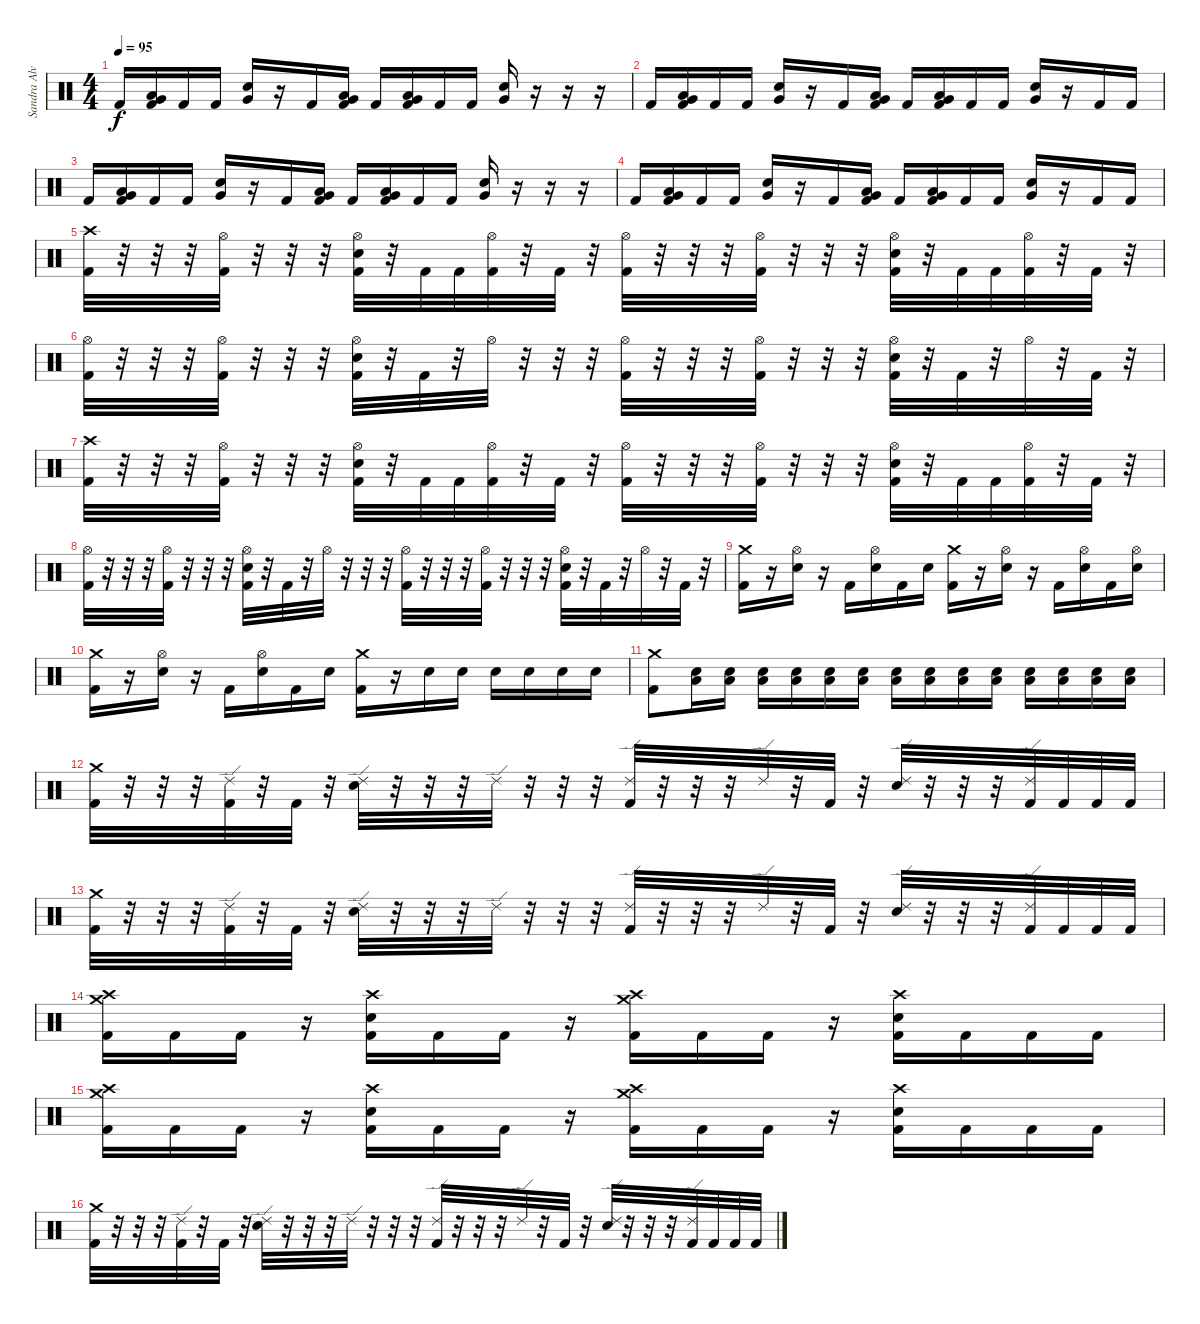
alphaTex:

\track ("Sandra Alvarenga" "Sandra Alv") {instrument percussion}
\staff
\articulation defaults
\ts (4 4)
\tempo 95
\clef neutral
\ks c "Kick (hit) 2".16{dy f}
("Low Tom (hit)" "Very Low Tom (hit)" "Kick (hit) 2").16 "Kick (hit) 2".16 "Kick (hit) 2".16 ("Electric Snare (hit)" "Very Low Tom (hit)").16 r.16 "Kick (hit) 2".16 ("Low Tom (hit)" "Very Low Tom (hit)" "Kick (hit) 2").16 "Kick (hit) 2".16 ("Very Low Tom (hit)" "Low Floor Tom (hit)" "Kick (hit) 2").16 "Kick (hit) 2".16 "Kick (hit) 2".16 ("Electric Snare (hit)" "Very Low Tom (hit)").16 r.16 r.16 r.16 |
"Kick (hit) 2".16 ("Low Tom (hit)" "Very Low Tom (hit)" "Kick (hit) 2").16 "Kick (hit) 2".16 "Kick (hit) 2".16 ("Electric Snare (hit)" "Very Low Tom (hit)").16 r.16 "Kick (hit) 2".16 ("Low Tom (hit)" "Very Low Tom (hit)" "Kick (hit) 2").16 "Kick (hit) 2".16 ("Very Low Tom (hit)" "Low Floor Tom (hit)" "Kick (hit) 2").16 "Kick (hit) 2".16 "Kick (hit) 2".16 ("Electric Snare (hit)" "Very Low Tom (hit)").16 r.16 "Kick (hit) 2".16 "Kick (hit) 2".16 |
"Kick (hit) 2".16 ("Low Tom (hit)" "Very Low Tom (hit)" "Kick (hit) 2").16 "Kick (hit) 2".16 "Kick (hit) 2".16 ("Electric Snare (hit)" "Very Low Tom (hit)").16 r.16 "Kick (hit) 2".16 ("Low Tom (hit)" "Very Low Tom (hit)" "Kick (hit) 2").16 "Kick (hit) 2".16 ("Very Low Tom (hit)" "Low Floor Tom (hit)" "Kick (hit) 2").16 "Kick (hit) 2".16 "Kick (hit) 2".16 ("Electric Snare (hit)" "Very Low Tom (hit)").16 r.16 r.16 r.16 |
"Kick (hit) 2".16 ("Low Tom (hit)" "Very Low Tom (hit)" "Kick (hit) 2").16 "Kick (hit) 2".16 "Kick (hit) 2".16 ("Electric Snare (hit)" "Very Low Tom (hit)").16 r.16 "Kick (hit) 2".16 ("Low Tom (hit)" "Very Low Tom (hit)" "Kick (hit) 2").16 "Kick (hit) 2".16 ("Very Low Tom (hit)" "Low Floor Tom (hit)" "Kick (hit) 2").16 "Kick (hit) 2".16 "Kick (hit) 2".16 ("Electric Snare (hit)" "Very Low Tom (hit)").16 r.16 "Kick (hit) 2".16 "Kick (hit) 2".16 |
("Crash high (hit)" "Kick (hit) 2").32 r.32 r.32 r.32 ("Hi-Hat (open)" "Kick (hit) 2").32 r.32 r.32 r.32 ("Hi-Hat (open)" "Electric Snare (hit)" "Kick (hit) 2").32 r.32 "Kick (hit) 2".32 "Kick (hit) 2".32 ("Hi-Hat (open)" "Kick (hit) 2").32 r.32 "Kick (hit) 2".32 r.32 ("Hi-Hat (open)" "Kick (hit) 2").32 r.32 r.32 r.32 ("Hi-Hat (open)" "Kick (hit) 2").32 r.32 r.32 r.32 ("Hi-Hat (open)" "Electric Snare (hit)" "Kick (hit) 2").32 r.32 "Kick (hit) 2".32 "Kick (hit) 2".32 ("Hi-Hat (open)" "Kick (hit) 2").32 r.32 "Kick (hit) 2".32 r.32 |
("Hi-Hat (open)" "Kick (hit) 2").32 r.32 r.32 r.32 ("Hi-Hat (open)" "Kick (hit) 2").32 r.32 r.32 r.32 ("Hi-Hat (open)" "Electric Snare (hit)" "Kick (hit) 2").32 r.32 "Kick (hit) 2".32 r.32 "Hi-Hat (open)".32 r.32 r.32 r.32 ("Hi-Hat (open)" "Kick (hit) 2").32 r.32 r.32 r.32 ("Hi-Hat (open)" "Kick (hit) 2").32 r.32 r.32 r.32 ("Hi-Hat (open)" "Electric Snare (hit)" "Kick (hit) 2").32 r.32 "Kick (hit) 2".32 r.32 "Hi-Hat (open)".32 r.32 "Kick (hit) 2".32 r.32 |
("Crash high (hit)" "Kick (hit) 2").32 r.32 r.32 r.32 ("Hi-Hat (open)" "Kick (hit) 2").32 r.32 r.32 r.32 ("Hi-Hat (open)" "Electric Snare (hit)" "Kick (hit) 2").32 r.32 "Kick (hit) 2".32 "Kick (hit) 2".32 ("Hi-Hat (open)" "Kick (hit) 2").32 r.32 "Kick (hit) 2".32 r.32 ("Hi-Hat (open)" "Kick (hit) 2").32 r.32 r.32 r.32 ("Hi-Hat (open)" "Kick (hit) 2").32 r.32 r.32 r.32 ("Hi-Hat (open)" "Electric Snare (hit)" "Kick (hit) 2").32 r.32 "Kick (hit) 2".32 "Kick (hit) 2".32 ("Hi-Hat (open)" "Kick (hit) 2").32 r.32 "Kick (hit) 2".32 r.32 |
("Hi-Hat (open)" "Kick (hit) 2").32 r.32 r.32 r.32 ("Hi-Hat (open)" "Kick (hit) 2").32 r.32 r.32 r.32 ("Hi-Hat (open)" "Electric Snare (hit)" "Kick (hit) 2").32 r.32 "Kick (hit) 2".32 r.32 "Hi-Hat (open)".32 r.32 r.32 r.32 ("Hi-Hat (open)" "Kick (hit) 2").32 r.32 r.32 r.32 ("Hi-Hat (open)" "Kick (hit) 2").32 r.32 r.32 r.32 ("Hi-Hat (open)" "Electric Snare (hit)" "Kick (hit) 2").32 r.32 "Kick (hit) 2".32 r.32 "Hi-Hat (open)".32 r.32 "Kick (hit) 2".32 r.32 |
("Crash medium (hit)" "Kick (hit) 2").16 r.16 ("Hi-Hat (open)" "Electric Snare (hit)").16 r.16 "Kick (hit) 2".16 ("Hi-Hat (open)" "Electric Snare (hit)").16 "Kick (hit) 2".16 "Electric Snare (hit)".16 ("Crash medium (hit)" "Kick (hit) 2").16 r.16 ("Hi-Hat (open)" "Electric Snare (hit)").16 r.16 "Kick (hit) 2".16 ("Hi-Hat (open)" "Electric Snare (hit)").16 "Kick (hit) 2".16 ("Hi-Hat (open)" "Electric Snare (hit)").16 |
("Crash medium (hit)" "Kick (hit) 2").16 r.16 ("Hi-Hat (open)" "Electric Snare (hit)").16 r.16 "Kick (hit) 2".16 ("Hi-Hat (open)" "Electric Snare (hit)").16 "Kick (hit) 2".16 "Electric Snare (hit)".16 ("Crash medium (hit)" "Kick (hit) 2").16 r.16 "Electric Snare (hit)".16 "Electric Snare (hit)".16 "Electric Snare (hit)".16 "Electric Snare (hit)".16 "Electric Snare (hit)".16 "Electric Snare (hit)".16 |
("Crash medium (hit)" "Kick (hit) 2").8 ("Low Floor Tom (hit)" "Electric Snare (hit)").16 ("Low Floor Tom (hit)" "Electric Snare (hit)").16 ("Low Floor Tom (hit)" "Electric Snare (hit)").16 ("Low Floor Tom (hit)" "Electric Snare (hit)").16 ("Low Floor Tom (hit)" "Electric Snare (hit)").16 ("Low Floor Tom (hit)" "Electric Snare (hit)").16 ("Low Floor Tom (hit)" "Electric Snare (hit)").16 ("Low Floor Tom (hit)" "Electric Snare (hit)").16 ("Low Floor Tom (hit)" "Electric Snare (hit)").16 ("Low Floor Tom (hit)" "Electric Snare (hit)").16 ("Low Floor Tom (hit)" "Electric Snare (hit)").16 ("Low Floor Tom (hit)" "Electric Snare (hit)").16 ("Low Floor Tom (hit)" "Electric Snare (hit)").16 ("Low Floor Tom (hit)" "Electric Snare (hit)").16 |
("Crash medium (hit)" "Kick (hit) 2").32 r.32 r.32 r.32 ("Ride (edge) 2" "Kick (hit) 2").32 r.32 "Kick (hit) 2".32 r.32 ("Ride (edge) 2" "Electric Snare (hit)").32 r.32 r.32 r.32 "Ride (edge) 2".32 r.32 r.32 r.32 ("Ride (edge) 2" "Kick (hit) 2").32 r.32 r.32 r.32 "Ride (edge) 2".32 r.32 "Kick (hit) 2".32 r.32 ("Ride (edge) 2" "Electric Snare (hit)").32 r.32 r.32 r.32 ("Ride (edge) 2" "Kick (hit) 2").32 "Kick (hit) 2".32 "Kick (hit) 2".32 "Kick (hit) 2".32 |
("Crash medium (hit)" "Kick (hit) 2").32 r.32 r.32 r.32 ("Ride (edge) 2" "Kick (hit) 2").32 r.32 "Kick (hit) 2".32 r.32 ("Ride (edge) 2" "Electric Snare (hit)").32 r.32 r.32 r.32 "Ride (edge) 2".32 r.32 r.32 r.32 ("Ride (edge) 2" "Kick (hit) 2").32 r.32 r.32 r.32 "Ride (edge) 2".32 r.32 "Kick (hit) 2".32 r.32 ("Ride (edge) 2" "Electric Snare (hit)").32 r.32 r.32 r.32 ("Ride (edge) 2" "Kick (hit) 2").32 "Kick (hit) 2".32 "Kick (hit) 2".32 "Kick (hit) 2".32 |
("Crash medium (hit)" "Crash high (hit)" "Kick (hit) 2").16 "Kick (hit) 2".16 "Kick (hit) 2".16 r.16 ("Crash high (hit)" "Electric Snare (hit)" "Kick (hit) 2").16 "Kick (hit) 2".16 "Kick (hit) 2".16 r.16 ("Crash medium (hit)" "Crash high (hit)" "Kick (hit) 2").16 "Kick (hit) 2".16 "Kick (hit) 2".16 r.16 ("Crash high (hit)" "Electric Snare (hit)" "Kick (hit) 2").16 "Kick (hit) 2".16 "Kick (hit) 2".16 "Kick (hit) 2".16 |
("Crash medium (hit)" "Crash high (hit)" "Kick (hit) 2").16 "Kick (hit) 2".16 "Kick (hit) 2".16 r.16 ("Crash high (hit)" "Electric Snare (hit)" "Kick (hit) 2").16 "Kick (hit) 2".16 "Kick (hit) 2".16 r.16 ("Crash medium (hit)" "Crash high (hit)" "Kick (hit) 2").16 "Kick (hit) 2".16 "Kick (hit) 2".16 r.16 ("Crash high (hit)" "Electric Snare (hit)" "Kick (hit) 2").16 "Kick (hit) 2".16 "Kick (hit) 2".16 "Kick (hit) 2".16 |
("Crash medium (hit)" "Kick (hit) 2").32 r.32 r.32 r.32 ("Ride (edge) 2" "Kick (hit) 2").32 r.32 "Kick (hit) 2".32 r.32 ("Ride (edge) 2" "Electric Snare (hit)").32 r.32 r.32 r.32 "Ride (edge) 2".32 r.32 r.32 r.32 ("Ride (edge) 2" "Kick (hit) 2").32 r.32 r.32 r.32 "Ride (edge) 2".32 r.32 "Kick (hit) 2".32 r.32 ("Ride (edge) 2" "Electric Snare (hit)").32 r.32 r.32 r.32 ("Ride (edge) 2" "Kick (hit) 2").32 "Kick (hit) 2".32 "Kick (hit) 2".32 "Kick (hit) 2".32
